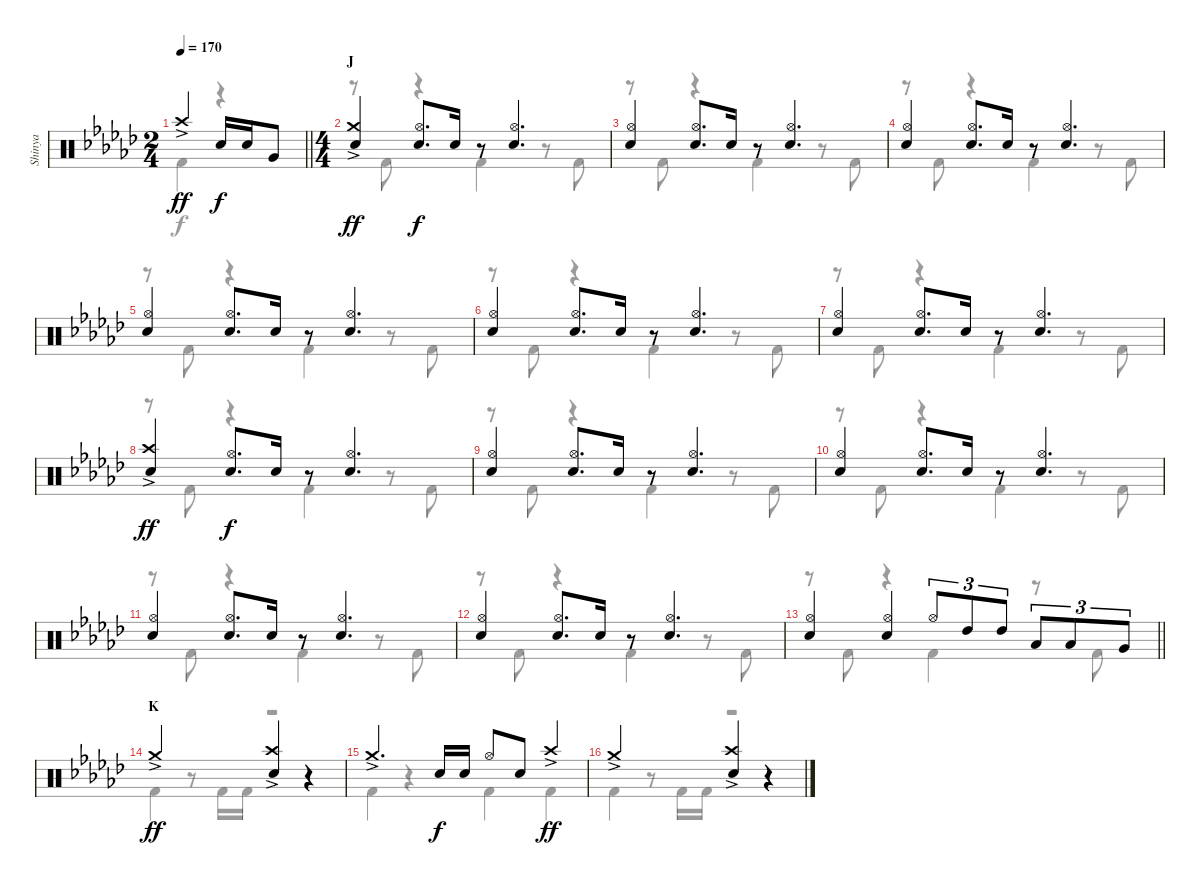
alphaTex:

\track ("Shinya" "Shinya") {instrument percussion}
\staff {score}
\articulation defaults
\voice
\ts (2 4)
\section ("" "")
\tempo 170
\clef neutral
\barLineRight lightlight
\ks ebminor "Crash high (hit)"{ac}.4{dy ff} "Snare (hit) 2".16{dy f} "Snare (hit) 2".16 "Very Low Tom (hit)".8
|
\ts (4 4)
\section ("" "J")
("Crash medium (hit)"{ac} "Snare (hit) 2").4{dy ff} ("Hi-Hat (open)" "Snare (hit) 2").8{d dy f} "Snare (hit) 2".16 r.8 ("Hi-Hat (open)" "Snare (hit) 2").4{d} |
("Hi-Hat (open)" "Snare (hit) 2").4 ("Hi-Hat (open)" "Snare (hit) 2").8{d} "Snare (hit) 2".16 r.8 ("Hi-Hat (open)" "Snare (hit) 2").4{d} |
("Hi-Hat (open)" "Snare (hit) 2").4 ("Hi-Hat (open)" "Snare (hit) 2").8{d} "Snare (hit) 2".16 r.8 ("Hi-Hat (open)" "Snare (hit) 2").4{d} |
("Hi-Hat (open)" "Snare (hit) 2").4 ("Hi-Hat (open)" "Snare (hit) 2").8{d} "Snare (hit) 2".16 r.8 ("Hi-Hat (open)" "Snare (hit) 2").4{d} |
("Hi-Hat (open)" "Snare (hit) 2").4 ("Hi-Hat (open)" "Snare (hit) 2").8{d} "Snare (hit) 2".16 r.8 ("Hi-Hat (open)" "Snare (hit) 2").4{d} |
("Hi-Hat (open)" "Snare (hit) 2").4 ("Hi-Hat (open)" "Snare (hit) 2").8{d} "Snare (hit) 2".16 r.8 ("Hi-Hat (open)" "Snare (hit) 2").4{d} |
("Crash high (hit)"{ac} "Snare (hit) 2").4{dy ff} ("Hi-Hat (open)" "Snare (hit) 2").8{d dy f} "Snare (hit) 2".16 r.8 ("Hi-Hat (open)" "Snare (hit) 2").4{d} |
("Hi-Hat (open)" "Snare (hit) 2").4 ("Hi-Hat (open)" "Snare (hit) 2").8{d} "Snare (hit) 2".16 r.8 ("Hi-Hat (open)" "Snare (hit) 2").4{d} |
("Hi-Hat (open)" "Snare (hit) 2").4 ("Hi-Hat (open)" "Snare (hit) 2").8{d} "Snare (hit) 2".16 r.8 ("Hi-Hat (open)" "Snare (hit) 2").4{d} |
("Hi-Hat (open)" "Snare (hit) 2").4 ("Hi-Hat (open)" "Snare (hit) 2").8{d} "Snare (hit) 2".16 r.8 ("Hi-Hat (open)" "Snare (hit) 2").4{d} |
("Hi-Hat (open)" "Snare (hit) 2").4 ("Hi-Hat (open)" "Snare (hit) 2").8{d} "Snare (hit) 2".16 r.8 ("Hi-Hat (open)" "Snare (hit) 2").4{d} |
\barLineRight lightlight
("Hi-Hat (open)" "Snare (hit) 2").4 ("Hi-Hat (open)" "Snare (hit) 2").4 "Hi-Hat (open)".8{tu (3 2)} "High Tom (hit)".8{tu (3 2)} "High Tom (hit)".8{tu (3 2)} "Low Tom (hit)".8{tu (3 2)} "Low Tom (hit)".8{tu (3 2)} "Very Low Tom (hit)".8{tu (3 2)} |
\section ("" "K")
"Crash medium (hit)"{ac}.2{dy ff} ("Crash high (hit)"{ac} "Snare (hit) 2").4 r.4 |
"Crash medium (hit)"{ac}.4{d} "Snare (hit) 2".16{dy f} "Snare (hit) 2".16 "Hi-Hat (open)".8 "Snare (hit) 2".8 "Crash high (hit)"{ac}.4{dy ff} |
"Crash medium (hit)"{ac}.2 ("Crash high (hit)"{ac} "Snare (hit) 2").4 r.4
\voice
\clef neutral
\ottava regular
\simile none
\barLineRight lightlight
\ks ebminor "Kick (hit) 2".4{dy f}
r.4 |
r.8 "Kick (hit) 2".8 r.4 "Kick (hit) 2".4 r.8 "Kick (hit) 2".8 |
r.8 "Kick (hit) 2".8 r.4 "Kick (hit) 2".4 r.8 "Kick (hit) 2".8 |
r.8 "Kick (hit) 2".8 r.4 "Kick (hit) 2".4 r.8 "Kick (hit) 2".8 |
r.8 "Kick (hit) 2".8 r.4 "Kick (hit) 2".4 r.8 "Kick (hit) 2".8 |
r.8 "Kick (hit) 2".8 r.4 "Kick (hit) 2".4 r.8 "Kick (hit) 2".8 |
r.8 "Kick (hit) 2".8 r.4 "Kick (hit) 2".4 r.8 "Kick (hit) 2".8 |
r.8 "Kick (hit) 2".8 r.4 "Kick (hit) 2".4 r.8 "Kick (hit) 2".8 |
r.8 "Kick (hit) 2".8 r.4 "Kick (hit) 2".4 r.8 "Kick (hit) 2".8 |
r.8 "Kick (hit) 2".8 r.4 "Kick (hit) 2".4 r.8 "Kick (hit) 2".8 |
r.8 "Kick (hit) 2".8 r.4 "Kick (hit) 2".4 r.8 "Kick (hit) 2".8 |
r.8 "Kick (hit) 2".8 r.4 "Kick (hit) 2".4 r.8 "Kick (hit) 2".8 |
\barLineRight lightlight
r.8 "Kick (hit) 2".8 r.4 "Kick (hit) 2".4 r.8 "Kick (hit) 2".8 |
"Kick (hit) 2".4 r.8 "Kick (hit) 2".16 "Kick (hit) 2".16 r.2 |
"Kick (hit) 2".4 r.4 "Kick (hit) 2".4 "Kick (hit) 2".4 |
"Kick (hit) 2".4 r.8 "Kick (hit) 2".16 "Kick (hit) 2".16 r.2
